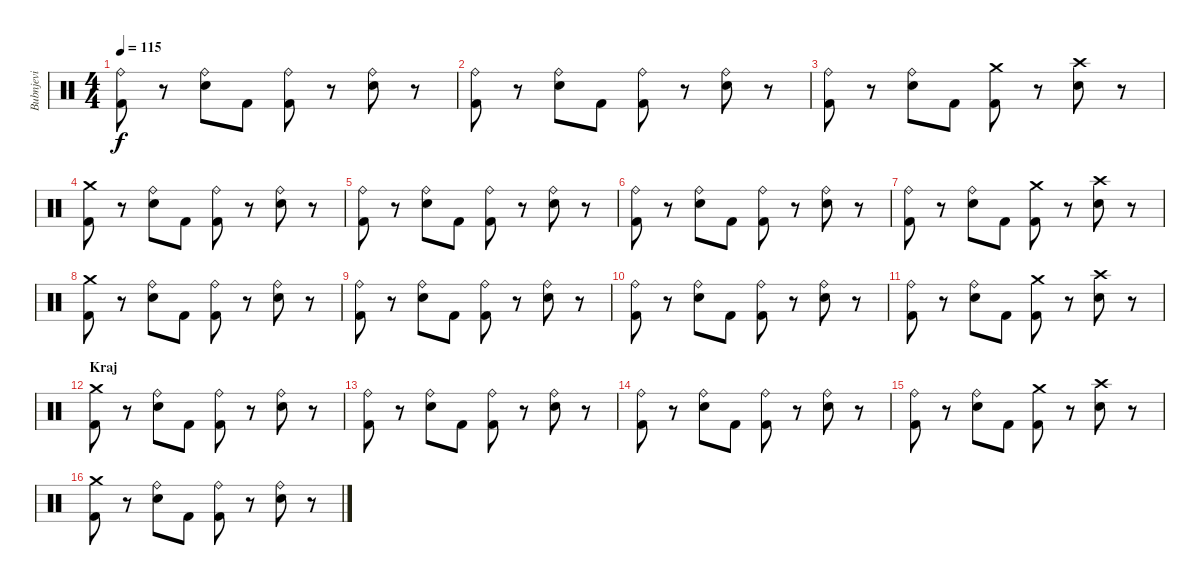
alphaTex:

\track ("Bubnjevi" "Bubnjevi") {instrument percussion}
\staff {score}
\articulation defaults
\ts (4 4)
\tempo 115
\clef neutral
\ks c
("Ride (bell)" "Kick (hit) 2").8{dy f} r.8 ("Ride (bell)" "Electric Snare (hit)").8 "Kick (hit) 2".8 ("Ride (bell)" "Kick (hit) 2").8 r.8 ("Ride (bell)" "Electric Snare (hit)").8 r.8 |
("Ride (bell)" "Kick (hit) 2").8 r.8 ("Ride (bell)" "Electric Snare (hit)").8 "Kick (hit) 2".8 ("Ride (bell)" "Kick (hit) 2").8 r.8 ("Ride (bell)" "Electric Snare (hit)").8 r.8 |
("Ride (bell)" "Kick (hit) 2").8 r.8 ("Ride (bell)" "Electric Snare (hit)").8 "Kick (hit) 2".8 ("Crash medium (hit)" "Kick (hit) 2").8 r.8 ("Crash high (hit)" "Electric Snare (hit)").8 r.8 |
("Crash medium (hit)" "Kick (hit) 2").8 r.8 ("Ride (bell)" "Electric Snare (hit)").8 "Kick (hit) 2".8 ("Ride (bell)" "Kick (hit) 2").8 r.8 ("Ride (bell)" "Electric Snare (hit)").8 r.8 |
("Ride (bell)" "Kick (hit) 2").8 r.8 ("Ride (bell)" "Electric Snare (hit)").8 "Kick (hit) 2".8 ("Ride (bell)" "Kick (hit) 2").8 r.8 ("Ride (bell)" "Electric Snare (hit)").8 r.8 |
("Ride (bell)" "Kick (hit) 2").8 r.8 ("Ride (bell)" "Electric Snare (hit)").8 "Kick (hit) 2".8 ("Ride (bell)" "Kick (hit) 2").8 r.8 ("Ride (bell)" "Electric Snare (hit)").8 r.8 |
("Ride (bell)" "Kick (hit) 2").8 r.8 ("Ride (bell)" "Electric Snare (hit)").8 "Kick (hit) 2".8 ("Crash medium (hit)" "Kick (hit) 2").8 r.8 ("Crash high (hit)" "Electric Snare (hit)").8 r.8 |
("Crash medium (hit)" "Kick (hit) 2").8 r.8 ("Ride (bell)" "Electric Snare (hit)").8 "Kick (hit) 2".8 ("Ride (bell)" "Kick (hit) 2").8 r.8 ("Ride (bell)" "Electric Snare (hit)").8 r.8 |
("Ride (bell)" "Kick (hit) 2").8 r.8 ("Ride (bell)" "Electric Snare (hit)").8 "Kick (hit) 2".8 ("Ride (bell)" "Kick (hit) 2").8 r.8 ("Ride (bell)" "Electric Snare (hit)").8 r.8 |
("Ride (bell)" "Kick (hit) 2").8 r.8 ("Ride (bell)" "Electric Snare (hit)").8 "Kick (hit) 2".8 ("Ride (bell)" "Kick (hit) 2").8 r.8 ("Ride (bell)" "Electric Snare (hit)").8 r.8 |
("Ride (bell)" "Kick (hit) 2").8 r.8 ("Ride (bell)" "Electric Snare (hit)").8 "Kick (hit) 2".8 ("Crash medium (hit)" "Kick (hit) 2").8 r.8 ("Crash high (hit)" "Electric Snare (hit)").8 r.8 |
\section ("" "Kraj")
("Crash medium (hit)" "Kick (hit) 2").8 r.8 ("Ride (bell)" "Electric Snare (hit)").8 "Kick (hit) 2".8 ("Ride (bell)" "Kick (hit) 2").8 r.8 ("Ride (bell)" "Electric Snare (hit)").8 r.8 |
("Ride (bell)" "Kick (hit) 2").8 r.8 ("Ride (bell)" "Electric Snare (hit)").8 "Kick (hit) 2".8 ("Ride (bell)" "Kick (hit) 2").8 r.8 ("Ride (bell)" "Electric Snare (hit)").8 r.8 |
("Ride (bell)" "Kick (hit) 2").8 r.8 ("Ride (bell)" "Electric Snare (hit)").8 "Kick (hit) 2".8 ("Ride (bell)" "Kick (hit) 2").8 r.8 ("Ride (bell)" "Electric Snare (hit)").8 r.8 |
("Ride (bell)" "Kick (hit) 2").8 r.8 ("Ride (bell)" "Electric Snare (hit)").8 "Kick (hit) 2".8 ("Crash medium (hit)" "Kick (hit) 2").8 r.8 ("Crash high (hit)" "Electric Snare (hit)").8 r.8 |
("Crash medium (hit)" "Kick (hit) 2").8 r.8 ("Ride (bell)" "Electric Snare (hit)").8 "Kick (hit) 2".8 ("Ride (bell)" "Kick (hit) 2").8 r.8 ("Ride (bell)" "Electric Snare (hit)").8 r.8
